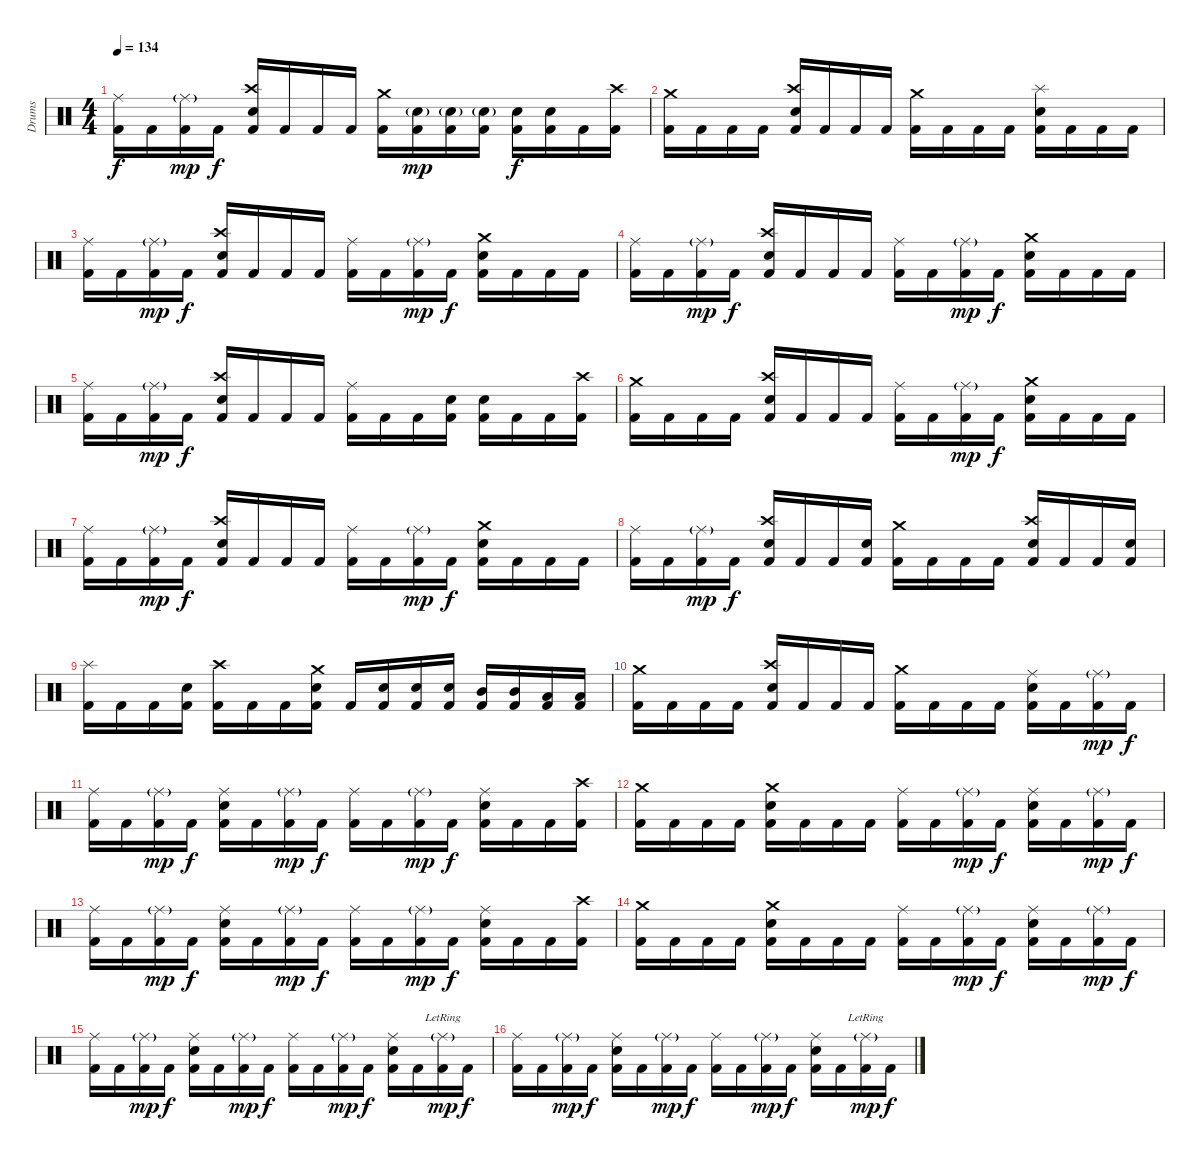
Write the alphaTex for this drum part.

\track ("Drums" "Drums") {instrument percussion}
\staff {score}
\articulation defaults
\ts (4 4)
\tempo 134
\clef neutral
\ks c
("Ride (middle)" "Kick (hit) 2").16{dy f} "Kick (hit) 2".16 ("Ride (middle)"{g} "Kick (hit) 2").16{dy mp} "Kick (hit) 2".16{dy f} ("Crash high (hit)" "Snare (hit) 2" "Kick (hit) 2").16 "Kick (hit) 2".16 "Kick (hit) 2".16 "Kick (hit) 2".16 ("Crash medium (hit)" "Kick (hit) 2").16 ("Snare (hit) 2"{g} "Kick (hit) 2").16{dy mp} ("Snare (hit) 2"{g} "Kick (hit) 2").16 ("Snare (hit) 2"{g} "Kick (hit) 2").16 ("Snare (hit) 2" "Kick (hit) 2").16{dy f} ("Snare (hit) 2" "Kick (hit) 2").16 "Kick (hit) 2".16 ("Crash high (hit)" "Kick (hit) 2").16 |
("Crash medium (hit)" "Kick (hit) 2").16 "Kick (hit) 2".16 "Kick (hit) 2".16 "Kick (hit) 2".16 ("Crash high (hit)" "Snare (hit) 2" "Kick (hit) 2").16 "Kick (hit) 2".16 "Kick (hit) 2".16 "Kick (hit) 2".16 ("Crash medium (hit)" "Kick (hit) 2").16 "Kick (hit) 2".16 "Kick (hit) 2".16 "Kick (hit) 2".16 ("Splash (hit)" "Snare (hit) 2" "Kick (hit) 2").16 "Kick (hit) 2".16 "Kick (hit) 2".16 "Kick (hit) 2".16 |
("Ride (middle)" "Kick (hit) 2").16 "Kick (hit) 2".16 ("Ride (middle)"{g} "Kick (hit) 2").16{dy mp} "Kick (hit) 2".16{dy f} ("Crash high (hit)" "Snare (hit) 2" "Kick (hit) 2").16 "Kick (hit) 2".16 "Kick (hit) 2".16 "Kick (hit) 2".16 ("Ride (middle)" "Kick (hit) 2").16 "Kick (hit) 2".16 ("Ride (middle)"{g} "Kick (hit) 2").16{dy mp} "Kick (hit) 2".16{dy f} ("Crash medium (hit)" "Snare (hit) 2" "Kick (hit) 2").16 "Kick (hit) 2".16 "Kick (hit) 2".16 "Kick (hit) 2".16 |
("Ride (middle)" "Kick (hit) 2").16 "Kick (hit) 2".16 ("Ride (middle)"{g} "Kick (hit) 2").16{dy mp} "Kick (hit) 2".16{dy f} ("Crash high (hit)" "Snare (hit) 2" "Kick (hit) 2").16 "Kick (hit) 2".16 "Kick (hit) 2".16 "Kick (hit) 2".16 ("Ride (middle)" "Kick (hit) 2").16 "Kick (hit) 2".16 ("Ride (middle)"{g} "Kick (hit) 2").16{dy mp} "Kick (hit) 2".16{dy f} ("Crash medium (hit)" "Snare (hit) 2" "Kick (hit) 2").16 "Kick (hit) 2".16 "Kick (hit) 2".16 "Kick (hit) 2".16 |
("Ride (middle)" "Kick (hit) 2").16 "Kick (hit) 2".16 ("Ride (middle)"{g} "Kick (hit) 2").16{dy mp} "Kick (hit) 2".16{dy f} ("Crash high (hit)" "Snare (hit) 2" "Kick (hit) 2").16 "Kick (hit) 2".16 "Kick (hit) 2".16 "Kick (hit) 2".16 ("Ride (middle)" "Kick (hit) 2").16 "Kick (hit) 2".16 "Kick (hit) 2".16 ("Snare (hit) 2" "Kick (hit) 2").16 ("Snare (hit) 2" "Kick (hit) 2").16 "Kick (hit) 2".16 "Kick (hit) 2".16 ("Crash high (hit)" "Kick (hit) 2").16 |
("Crash medium (hit)" "Kick (hit) 2").16 "Kick (hit) 2".16 "Kick (hit) 2".16 "Kick (hit) 2".16 ("Crash high (hit)" "Snare (hit) 2" "Kick (hit) 2").16 "Kick (hit) 2".16 "Kick (hit) 2".16 "Kick (hit) 2".16 ("Ride (middle)" "Kick (hit) 2").16 "Kick (hit) 2".16 ("Ride (middle)"{g} "Kick (hit) 2").16{dy mp} "Kick (hit) 2".16{dy f} ("Crash medium (hit)" "Snare (hit) 2" "Kick (hit) 2").16 "Kick (hit) 2".16 "Kick (hit) 2".16 "Kick (hit) 2".16 |
("Ride (middle)" "Kick (hit) 2").16 "Kick (hit) 2".16 ("Ride (middle)"{g} "Kick (hit) 2").16{dy mp} "Kick (hit) 2".16{dy f} ("Crash high (hit)" "Snare (hit) 2" "Kick (hit) 2").16 "Kick (hit) 2".16 "Kick (hit) 2".16 "Kick (hit) 2".16 ("Ride (middle)" "Kick (hit) 2").16 "Kick (hit) 2".16 ("Ride (middle)"{g} "Kick (hit) 2").16{dy mp} "Kick (hit) 2".16{dy f} ("Crash medium (hit)" "Snare (hit) 2" "Kick (hit) 2").16 "Kick (hit) 2".16 "Kick (hit) 2".16 "Kick (hit) 2".16 |
("Ride (middle)" "Kick (hit) 2").16 "Kick (hit) 2".16 ("Ride (middle)"{g} "Kick (hit) 2").16{dy mp} "Kick (hit) 2".16{dy f} ("Crash high (hit)" "Snare (hit) 2" "Kick (hit) 2").16 "Kick (hit) 2".16 "Kick (hit) 2".16 ("Snare (hit) 2" "Kick (hit) 2").16 ("Crash medium (hit)" "Kick (hit) 2").16 "Kick (hit) 2".16 "Kick (hit) 2".16 "Kick (hit) 2".16 ("Crash high (hit)" "Snare (hit) 2" "Kick (hit) 2").16 "Kick (hit) 2".16 "Kick (hit) 2".16 ("Snare (hit) 2" "Kick (hit) 2").16 |
("Splash (hit)" "Kick (hit) 2").16 "Kick (hit) 2".16 "Kick (hit) 2".16 ("Snare (hit) 2" "Kick (hit) 2").16 ("Crash high (hit)" "Kick (hit) 2").16 "Kick (hit) 2".16 "Kick (hit) 2".16 ("Crash medium (hit)" "Snare (hit) 2" "Kick (hit) 2").16 "Kick (hit) 2".16 ("Snare (hit) 2" "Kick (hit) 2").16 ("Snare (hit) 2" "Kick (hit) 2").16 ("Snare (hit) 2" "Kick (hit) 2").16 ("Mid Tom (hit)" "Kick (hit) 2").16 ("Mid Tom (hit)" "Kick (hit) 2").16 ("Low Tom (hit)" "Kick (hit) 2").16 ("Low Tom (hit)" "Kick (hit) 2").16 |
("Crash medium (hit)" "Kick (hit) 2").16 "Kick (hit) 2".16 "Kick (hit) 2".16 "Kick (hit) 2".16 ("Crash high (hit)" "Snare (hit) 2" "Kick (hit) 2").16 "Kick (hit) 2".16 "Kick (hit) 2".16 "Kick (hit) 2".16 ("Crash medium (hit)" "Kick (hit) 2").16 "Kick (hit) 2".16 "Kick (hit) 2".16 "Kick (hit) 2".16 ("Ride (middle)" "Snare (hit) 2" "Kick (hit) 2").16 "Kick (hit) 2".16 ("Ride (middle)"{g} "Kick (hit) 2").16{dy mp} "Kick (hit) 2".16{dy f} |
("Ride (middle)" "Kick (hit) 2").16 "Kick (hit) 2".16 ("Ride (middle)"{g} "Kick (hit) 2").16{dy mp} "Kick (hit) 2".16{dy f} ("Ride (middle)" "Snare (hit) 2" "Kick (hit) 2").16 "Kick (hit) 2".16 ("Ride (middle)"{g} "Kick (hit) 2").16{dy mp} "Kick (hit) 2".16{dy f} ("Ride (middle)" "Kick (hit) 2").16 "Kick (hit) 2".16 ("Ride (middle)"{g} "Kick (hit) 2").16{dy mp} "Kick (hit) 2".16{dy f} ("Ride (middle)" "Snare (hit) 2" "Kick (hit) 2").16 "Kick (hit) 2".16 "Kick (hit) 2".16 ("Crash high (hit)" "Kick (hit) 2").16 |
("Crash medium (hit)" "Kick (hit) 2").16 "Kick (hit) 2".16 "Kick (hit) 2".16 "Kick (hit) 2".16 ("Crash medium (hit)" "Snare (hit) 2" "Kick (hit) 2").16 "Kick (hit) 2".16 "Kick (hit) 2".16 "Kick (hit) 2".16 ("Ride (middle)" "Kick (hit) 2").16 "Kick (hit) 2".16 ("Ride (middle)"{g} "Kick (hit) 2").16{dy mp} "Kick (hit) 2".16{dy f} ("Ride (middle)" "Snare (hit) 2" "Kick (hit) 2").16 "Kick (hit) 2".16 ("Ride (middle)"{g} "Kick (hit) 2").16{dy mp} "Kick (hit) 2".16{dy f} |
("Ride (middle)" "Kick (hit) 2").16 "Kick (hit) 2".16 ("Ride (middle)"{g} "Kick (hit) 2").16{dy mp} "Kick (hit) 2".16{dy f} ("Ride (middle)" "Snare (hit) 2" "Kick (hit) 2").16 "Kick (hit) 2".16 ("Ride (middle)"{g} "Kick (hit) 2").16{dy mp} "Kick (hit) 2".16{dy f} ("Ride (middle)" "Kick (hit) 2").16 "Kick (hit) 2".16 ("Ride (middle)"{g} "Kick (hit) 2").16{dy mp} "Kick (hit) 2".16{dy f} ("Ride (middle)" "Snare (hit) 2" "Kick (hit) 2").16 "Kick (hit) 2".16 "Kick (hit) 2".16 ("Crash high (hit)" "Kick (hit) 2").16 |
("Crash medium (hit)" "Kick (hit) 2").16 "Kick (hit) 2".16 "Kick (hit) 2".16 "Kick (hit) 2".16 ("Crash medium (hit)" "Snare (hit) 2" "Kick (hit) 2").16 "Kick (hit) 2".16 "Kick (hit) 2".16 "Kick (hit) 2".16 ("Ride (middle)" "Kick (hit) 2").16 "Kick (hit) 2".16 ("Ride (middle)"{g} "Kick (hit) 2").16{dy mp} "Kick (hit) 2".16{dy f} ("Ride (middle)" "Snare (hit) 2" "Kick (hit) 2").16 "Kick (hit) 2".16 ("Ride (middle)"{g} "Kick (hit) 2").16{dy mp} "Kick (hit) 2".16{dy f} |
("Ride (middle)" "Kick (hit) 2").16 "Kick (hit) 2".16 ("Ride (middle)"{g} "Kick (hit) 2").16{dy mp} "Kick (hit) 2".16{dy f} ("Ride (middle)" "Snare (hit) 2" "Kick (hit) 2").16 "Kick (hit) 2".16 ("Ride (middle)"{g} "Kick (hit) 2").16{dy mp} "Kick (hit) 2".16{dy f} ("Ride (middle)" "Kick (hit) 2").16 "Kick (hit) 2".16 ("Ride (middle)"{g} "Kick (hit) 2").16{dy mp} "Kick (hit) 2".16{dy f} ("Ride (middle)" "Snare (hit) 2" "Kick (hit) 2").16 "Kick (hit) 2".16 ("Ride (middle)"{g lr} "Kick (hit) 2").16{dy mp} "Kick (hit) 2".16{dy f} |
("Ride (middle)" "Kick (hit) 2").16 "Kick (hit) 2".16 ("Ride (middle)"{g} "Kick (hit) 2").16{dy mp} "Kick (hit) 2".16{dy f} ("Ride (middle)" "Snare (hit) 2" "Kick (hit) 2").16 "Kick (hit) 2".16 ("Ride (middle)"{g} "Kick (hit) 2").16{dy mp} "Kick (hit) 2".16{dy f} ("Ride (middle)" "Kick (hit) 2").16 "Kick (hit) 2".16 ("Ride (middle)"{g} "Kick (hit) 2").16{dy mp} "Kick (hit) 2".16{dy f} ("Ride (middle)" "Snare (hit) 2" "Kick (hit) 2").16 "Kick (hit) 2".16 ("Ride (middle)"{g lr} "Kick (hit) 2").16{dy mp} "Kick (hit) 2".16{dy f}
